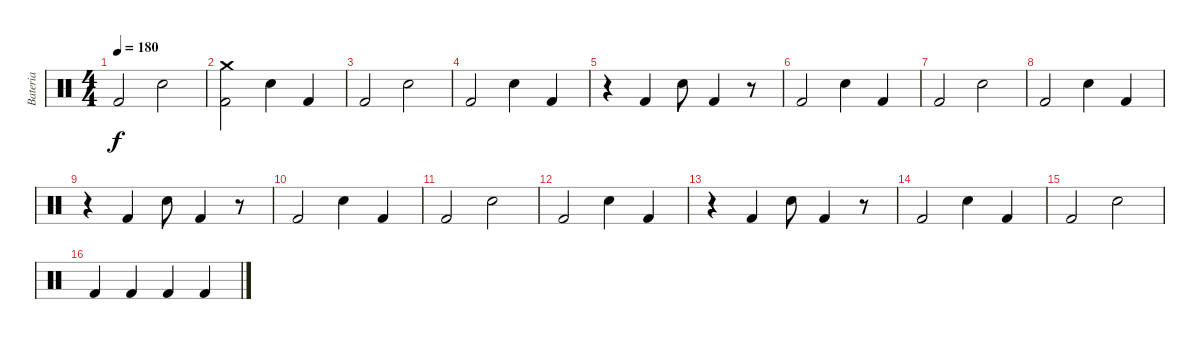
\track ("Bateria" "Bateria") {instrument percussion}
\staff {score}
\articulation defaults
\ts (4 4)
\tempo 180
\clef neutral
\ks c "Kick (hit) 2".2{dy f} "Electric Snare (hit)".2
|
("Crash medium (hit)" "Kick (hit) 2").2 "Electric Snare (hit)".4 "Kick (hit) 2".4 |
"Kick (hit) 2".2 "Electric Snare (hit)".2 |
"Kick (hit) 2".2 "Electric Snare (hit)".4 "Kick (hit) 2".4 |
r.4 "Kick (hit) 2".4 "Electric Snare (hit)".8 "Kick (hit) 2".4 r.8 |
"Kick (hit) 2".2 "Electric Snare (hit)".4 "Kick (hit) 2".4 |
"Kick (hit) 2".2 "Electric Snare (hit)".2 |
"Kick (hit) 2".2 "Electric Snare (hit)".4 "Kick (hit) 2".4 |
r.4 "Kick (hit) 2".4 "Electric Snare (hit)".8 "Kick (hit) 2".4 r.8 |
"Kick (hit) 2".2 "Electric Snare (hit)".4 "Kick (hit) 2".4 |
"Kick (hit) 2".2 "Electric Snare (hit)".2 |
"Kick (hit) 2".2 "Electric Snare (hit)".4 "Kick (hit) 2".4 |
r.4 "Kick (hit) 2".4 "Electric Snare (hit)".8 "Kick (hit) 2".4 r.8 |
"Kick (hit) 2".2 "Electric Snare (hit)".4 "Kick (hit) 2".4 |
"Kick (hit) 2".2 "Electric Snare (hit)".2 |
"Kick (hit) 2".4 "Kick (hit) 2".4 "Kick (hit) 2".4 "Kick (hit) 2".4
